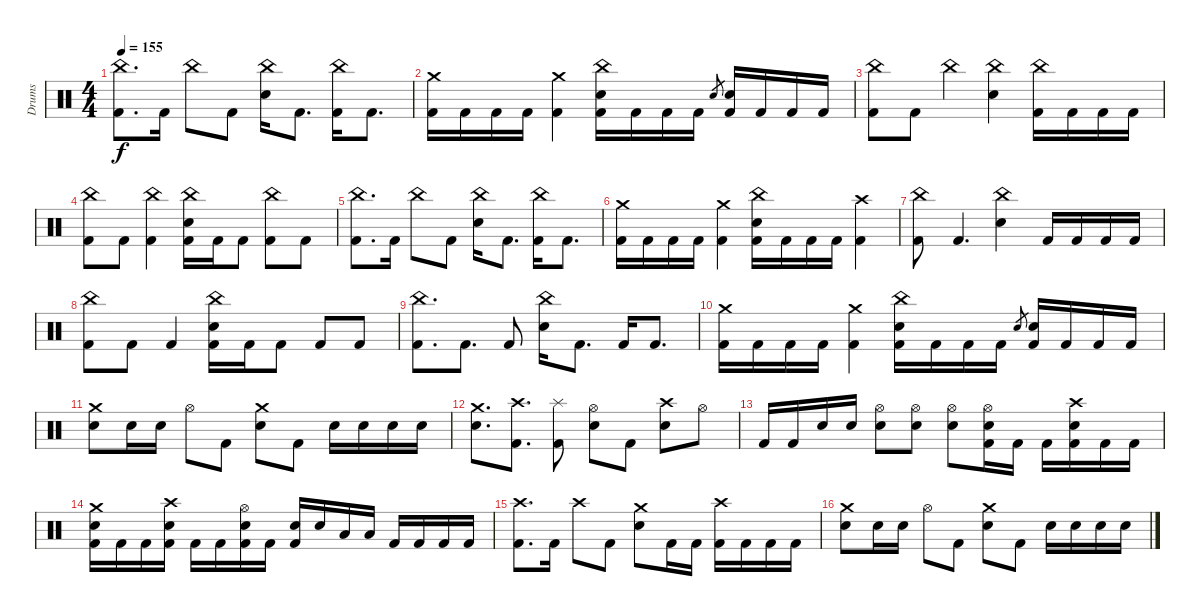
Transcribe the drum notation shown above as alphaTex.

\track ("Drums" "Drums") {instrument percussion}
\staff {score}
\articulation defaults
\ts (4 4)
\tempo 155
\clef neutral
\ks c
("China (hit)" "Kick (hit) 2").8{d dy f} "Kick (hit) 2".16 "China (hit)".8 "Kick (hit) 2".8 ("China (hit)" "Electric Snare (hit)").16 "Kick (hit) 2".8{d} ("China (hit)" "Kick (hit) 2").16 "Kick (hit) 2".8{d} |
("Crash medium (hit)" "Kick (hit) 2").16 "Kick (hit) 2".16 "Kick (hit) 2".16 "Kick (hit) 2".16 ("Crash medium (hit)" "Kick (hit) 2").4 ("China (hit)" "Electric Snare (hit)" "Kick (hit) 2").16 "Kick (hit) 2".16 "Kick (hit) 2".16 "Kick (hit) 2".16 "Electric Snare (hit)".8{gr} ("Electric Snare (hit)" "Kick (hit) 2").16 "Kick (hit) 2".16 "Kick (hit) 2".16 "Kick (hit) 2".16 |
("China (hit)" "Kick (hit) 2").8 "Kick (hit) 2".8 "China (hit)".4 ("China (hit)" "Electric Snare (hit)").4 ("China (hit)" "Kick (hit) 2").16 "Kick (hit) 2".16 "Kick (hit) 2".16 "Kick (hit) 2".16 |
("China (hit)" "Kick (hit) 2").8 "Kick (hit) 2".8 ("China (hit)" "Kick (hit) 2").4 ("China (hit)" "Electric Snare (hit)" "Kick (hit) 2").16 "Kick (hit) 2".16 "Kick (hit) 2".8 ("China (hit)" "Kick (hit) 2").8 "Kick (hit) 2".8 |
("China (hit)" "Kick (hit) 2").8{d} "Kick (hit) 2".16 "China (hit)".8 "Kick (hit) 2".8 ("China (hit)" "Electric Snare (hit)").16 "Kick (hit) 2".8{d} ("China (hit)" "Kick (hit) 2").16 "Kick (hit) 2".8{d} |
("Crash medium (hit)" "Kick (hit) 2").16 "Kick (hit) 2".16 "Kick (hit) 2".16 "Kick (hit) 2".16 ("Crash medium (hit)" "Kick (hit) 2").4 ("China (hit)" "Electric Snare (hit)" "Kick (hit) 2").16 "Kick (hit) 2".16 "Kick (hit) 2".16 "Kick (hit) 2".16 ("Crash high (hit)" "Kick (hit) 2").4 |
("China (hit)" "Kick (hit) 2").8 "Kick (hit) 2".4{d} ("China (hit)" "Electric Snare (hit)").4 "Kick (hit) 2".16 "Kick (hit) 2".16 "Kick (hit) 2".16 "Kick (hit) 2".16 |
("China (hit)" "Kick (hit) 2").8 "Kick (hit) 2".8 "Kick (hit) 2".4 ("China (hit)" "Electric Snare (hit)" "Kick (hit) 2").16 "Kick (hit) 2".16 "Kick (hit) 2".8 "Kick (hit) 2".8 "Kick (hit) 2".8 |
("China (hit)" "Kick (hit) 2").8{d} "Kick (hit) 2".8{d} "Kick (hit) 2".8 ("China (hit)" "Electric Snare (hit)").16 "Kick (hit) 2".8{d} "Kick (hit) 2".16 "Kick (hit) 2".8{d} |
("Crash medium (hit)" "Kick (hit) 2").16 "Kick (hit) 2".16 "Kick (hit) 2".16 "Kick (hit) 2".16 ("Crash medium (hit)" "Kick (hit) 2").4 ("China (hit)" "Electric Snare (hit)" "Kick (hit) 2").16 "Kick (hit) 2".16 "Kick (hit) 2".16 "Kick (hit) 2".16 "Electric Snare (hit)".8{gr} ("Electric Snare (hit)" "Kick (hit) 2").16 "Kick (hit) 2".16 "Kick (hit) 2".16 "Kick (hit) 2".16 |
("Crash medium (hit)" "Electric Snare (hit)").8 "Electric Snare (hit)".16 "Electric Snare (hit)".16 "Hi-Hat (open)".8 "Kick (hit) 2".8 ("Crash medium (hit)" "Electric Snare (hit)").8 "Kick (hit) 2".8 "Electric Snare (hit)".16 "Electric Snare (hit)".16 "Electric Snare (hit)".16 "Electric Snare (hit)".16 |
("Crash medium (hit)" "Electric Snare (hit)").8{d} ("Crash high (hit)" "Kick (hit) 2").8{d} ("Splash (hit)" "Kick (hit) 2").8 ("Hi-Hat (open)" "Electric Snare (hit)").8 "Kick (hit) 2".8 ("Crash high (hit)" "Electric Snare (hit)").8 "Hi-Hat (open)".8 |
"Kick (hit) 2".16 "Kick (hit) 2".16 "Electric Snare (hit)".16 "Electric Snare (hit)".16 ("Hi-Hat (open)" "Electric Snare (hit)").8 ("Hi-Hat (open)" "Electric Snare (hit)").8 ("Hi-Hat (open)" "Electric Snare (hit)").8 ("Hi-Hat (open)" "Electric Snare (hit)" "Kick (hit) 2").16 "Kick (hit) 2".16 "Kick (hit) 2".16 ("Crash high (hit)" "Electric Snare (hit)" "Kick (hit) 2").16 "Kick (hit) 2".16 "Kick (hit) 2".16 |
("Crash medium (hit)" "Electric Snare (hit)" "Kick (hit) 2").16 "Kick (hit) 2".16 "Kick (hit) 2".16 ("Crash high (hit)" "Electric Snare (hit)" "Kick (hit) 2").16 "Kick (hit) 2".16 "Kick (hit) 2".16 ("Hi-Hat (open)" "Electric Snare (hit)" "Kick (hit) 2").16 "Kick (hit) 2".16 ("Electric Snare (hit)" "Kick (hit) 2").16 "Electric Snare (hit)".16 "Low Floor Tom (hit)".16 "Low Floor Tom (hit)".16 "Kick (hit) 2".16 "Kick (hit) 2".16 "Kick (hit) 2".16 "Kick (hit) 2".16 |
("Crash high (hit)" "Kick (hit) 2").8{d} "Kick (hit) 2".16 "Crash high (hit)".8 "Kick (hit) 2".8 ("Crash medium (hit)" "Electric Snare (hit)").8 "Kick (hit) 2".16 "Kick (hit) 2".16 ("Crash high (hit)" "Kick (hit) 2").16 "Kick (hit) 2".16 "Kick (hit) 2".16 "Kick (hit) 2".16 |
("Crash medium (hit)" "Electric Snare (hit)").8 "Electric Snare (hit)".16 "Electric Snare (hit)".16 "Hi-Hat (open)".8 "Kick (hit) 2".8 ("Crash medium (hit)" "Electric Snare (hit)").8 "Kick (hit) 2".8 "Electric Snare (hit)".16 "Electric Snare (hit)".16 "Electric Snare (hit)".16 "Electric Snare (hit)".16
